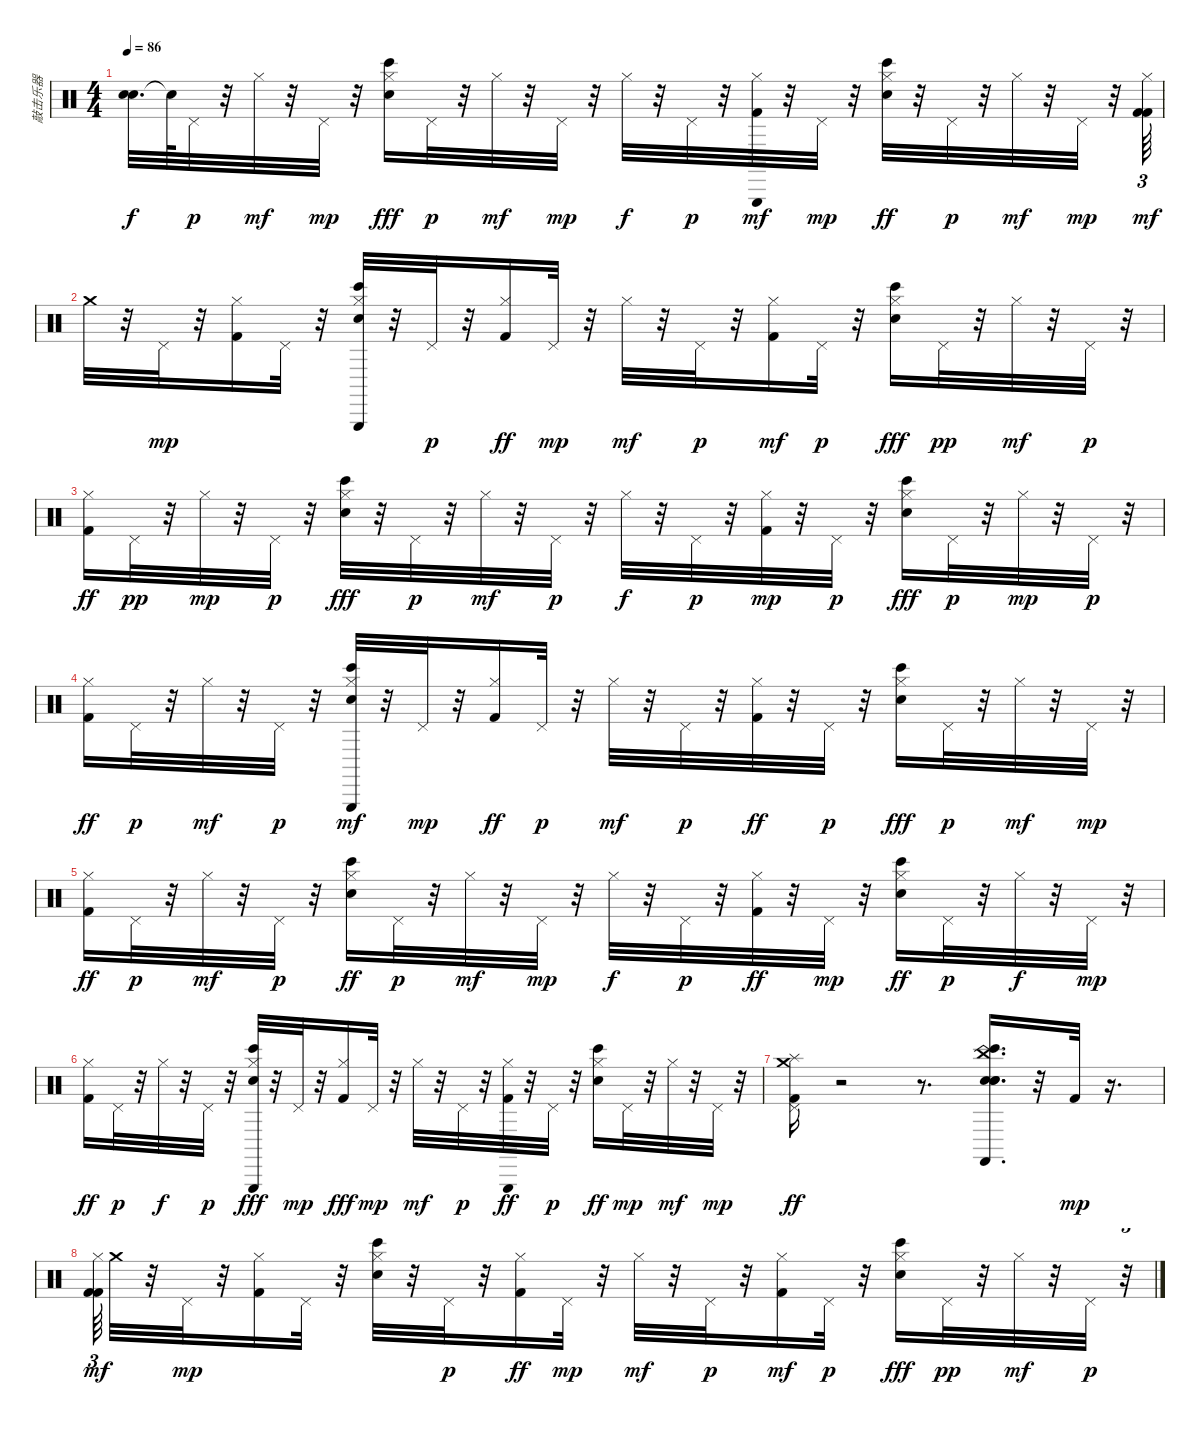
\track ("敲击乐器" "敲击乐器") {instrument percussion}
\staff {score}
\articulation defaults
\ts (4 4)
\tempo 86
\clef neutral
\ks c
("Snare (hit)"{t} "Snare (hit)"{t}).32{d dy f} "Snare (hit)"{t}.64 "Pedal Hi-Hat (hit)".32{dy p} r.32 "Hi-Hat (closed)".32{dy mf} r.32 "Pedal Hi-Hat (hit)".32{dy mp} r.32 ("Hi-Hat (closed)" "Bongo High (hit)" "Electric Snare (hit)").16{dy fff} "Pedal Hi-Hat (hit)".32{dy p} r.32 "Hi-Hat (closed)".32{dy mf} r.32 "Pedal Hi-Hat (hit)".32{dy mp} r.32 "Hi-Hat (closed)".32{dy f} r.32 "Pedal Hi-Hat (hit)".32{dy p} r.32 ("Triangle (hit)" "Hi-Hat (closed)" "Kick (hit) 2").32{dy mf} r.32 "Pedal Hi-Hat (hit)".32{dy mp} r.32 ("Hi-Hat (closed)" "Electric Snare (hit)" "Bongo High (hit)").32{dy ff} r.32 "Pedal Hi-Hat (hit)".32{dy p} r.32 "Hi-Hat (closed)".32{dy mf} r.32 "Pedal Hi-Hat (hit)".32{dy mp} r.32 ("Hi-Hat (closed)" "Kick (hit) 2" "Kick (hit) 2").64{tu (3 2) dy mf} |
"Crash medium (hit)".32 r.32 "Pedal Hi-Hat (hit)".32{dy mp} r.32 ("Hi-Hat (closed)" "Kick (hit) 2").16 "Pedal Hi-Hat (hit)".32 r.32 ("Hi-Hat (closed)" "Electric Snare (hit)" "Bongo High (hit)" "Triangle (hit)").32 r.32 "Pedal Hi-Hat (hit)".32{dy p} r.32 ("Hi-Hat (closed)" "Kick (hit) 2").16{dy ff} "Pedal Hi-Hat (hit)".32{dy mp} r.32 "Hi-Hat (closed)".32{dy mf} r.32 "Pedal Hi-Hat (hit)".32{dy p} r.32 ("Hi-Hat (closed)" "Kick (hit) 2").16{dy mf} "Pedal Hi-Hat (hit)".32{dy p} r.32 ("Hi-Hat (closed)" "Electric Snare (hit)" "Bongo High (hit)").16{dy fff} "Pedal Hi-Hat (hit)".32{dy pp} r.32 "Hi-Hat (closed)".32{dy mf} r.32 "Pedal Hi-Hat (hit)".32{dy p} r.32 |
("Hi-Hat (closed)" "Kick (hit) 2").16{dy ff} "Pedal Hi-Hat (hit)".32{dy pp} r.32 "Hi-Hat (closed)".32{dy mp} r.32 "Pedal Hi-Hat (hit)".32{dy p} r.32 ("Hi-Hat (closed)" "Electric Snare (hit)" "Bongo High (hit)").32{dy fff} r.32 "Pedal Hi-Hat (hit)".32{dy p} r.32 "Hi-Hat (closed)".32{dy mf} r.32 "Pedal Hi-Hat (hit)".32{dy p} r.32 "Hi-Hat (closed)".32{dy f} r.32 "Pedal Hi-Hat (hit)".32{dy p} r.32 ("Hi-Hat (closed)" "Kick (hit) 2").32{dy mp} r.32 "Pedal Hi-Hat (hit)".32{dy p} r.32 ("Hi-Hat (closed)" "Electric Snare (hit)" "Bongo High (hit)").16{dy fff} "Pedal Hi-Hat (hit)".32{dy p} r.32 "Hi-Hat (closed)".32{dy mp} r.32 "Pedal Hi-Hat (hit)".32{dy p} r.32 |
("Hi-Hat (closed)" "Kick (hit) 2").16{dy ff} "Pedal Hi-Hat (hit)".32{dy p} r.32 "Hi-Hat (closed)".32{dy mf} r.32 "Pedal Hi-Hat (hit)".32{dy p} r.32 ("Triangle (hit)" "Hi-Hat (closed)" "Electric Snare (hit)" "Bongo High (hit)").32{dy mf} r.32 "Pedal Hi-Hat (hit)".32{dy mp} r.32 ("Hi-Hat (closed)" "Kick (hit) 2").16{dy ff} "Pedal Hi-Hat (hit)".32{dy p} r.32 "Hi-Hat (closed)".32{dy mf} r.32 "Pedal Hi-Hat (hit)".32{dy p} r.32 ("Hi-Hat (closed)" "Kick (hit) 2").32{dy ff} r.32 "Pedal Hi-Hat (hit)".32{dy p} r.32 ("Hi-Hat (closed)" "Electric Snare (hit)" "Bongo High (hit)").16{dy fff} "Pedal Hi-Hat (hit)".32{dy p} r.32 "Hi-Hat (closed)".32{dy mf} r.32 "Pedal Hi-Hat (hit)".32{dy mp} r.32 |
("Hi-Hat (closed)" "Kick (hit) 2").16{dy ff} "Pedal Hi-Hat (hit)".32{dy p} r.32 "Hi-Hat (closed)".32{dy mf} r.32 "Pedal Hi-Hat (hit)".32{dy p} r.32 ("Hi-Hat (closed)" "Electric Snare (hit)" "Bongo High (hit)").16{dy ff} "Pedal Hi-Hat (hit)".32{dy p} r.32 "Hi-Hat (closed)".32{dy mf} r.32 "Pedal Hi-Hat (hit)".32{dy mp} r.32 "Hi-Hat (closed)".32{dy f} r.32 "Pedal Hi-Hat (hit)".32{dy p} r.32 ("Hi-Hat (closed)" "Kick (hit) 2").32{dy ff} r.32 "Pedal Hi-Hat (hit)".32{dy mp} r.32 ("Hi-Hat (closed)" "Electric Snare (hit)" "Bongo High (hit)").16{dy ff} "Pedal Hi-Hat (hit)".32{dy p} r.32 "Hi-Hat (closed)".32{dy f} r.32 "Pedal Hi-Hat (hit)".32{dy mp} r.32 |
("Hi-Hat (closed)" "Kick (hit) 2").16{dy ff} "Pedal Hi-Hat (hit)".32{dy p} r.32 "Hi-Hat (closed)".32{dy f} r.32 "Pedal Hi-Hat (hit)".32{dy p} r.32 ("Hi-Hat (closed)" "Triangle (hit)" "Bongo High (hit)" "Electric Snare (hit)").32{dy fff} r.32 "Pedal Hi-Hat (hit)".32{dy mp} r.32 ("Hi-Hat (closed)" "Kick (hit) 2").16{dy fff} "Pedal Hi-Hat (hit)".32{dy mp} r.32 "Hi-Hat (closed)".32{dy mf} r.32 "Pedal Hi-Hat (hit)".32{dy p} r.32 ("Hi-Hat (closed)" "Triangle (hit)" "Kick (hit) 2").32{dy ff} r.32 "Pedal Hi-Hat (hit)".32{dy p} r.32 ("Hi-Hat (closed)" "Bongo High (hit)" "Electric Snare (hit)").16{dy ff} "Pedal Hi-Hat (hit)".32{dy mp} r.32 "Hi-Hat (closed)".32{dy mf} r.32 "Pedal Hi-Hat (hit)".32{dy mp} r.32 |
("Pedal Hi-Hat (hit)" "Crash medium (hit)" "Splash (hit)" "Kick (hit) 2").16{dy ff} r.2 r.8{d} ("China (hit)" "Snare (hit)" "Hand Clap (hit)" "Snare (hit)" "Castanets (hit)" "Bongo High (hit)").16{d} r.32 "Kick (hit) 2".32{dy mp} r.16{d} |
("Hi-Hat (closed)" "Kick (hit) 2" "Kick (hit) 2").64{tu (3 2) dy mf} "Crash medium (hit)".32 r.32 "Pedal Hi-Hat (hit)".32{dy mp} r.32 ("Hi-Hat (closed)" "Kick (hit) 2").16 "Pedal Hi-Hat (hit)".32 r.32 ("Hi-Hat (closed)" "Electric Snare (hit)" "Bongo High (hit)").32 r.32 "Pedal Hi-Hat (hit)".32{dy p} r.32 ("Hi-Hat (closed)" "Kick (hit) 2").16{dy ff} "Pedal Hi-Hat (hit)".32{dy mp} r.32 "Hi-Hat (closed)".32{dy mf} r.32 "Pedal Hi-Hat (hit)".32{dy p} r.32 ("Hi-Hat (closed)" "Kick (hit) 2").16{dy mf} "Pedal Hi-Hat (hit)".32{dy p} r.32 ("Hi-Hat (closed)" "Electric Snare (hit)" "Bongo High (hit)").16{dy fff} "Pedal Hi-Hat (hit)".32{dy pp} r.32 "Hi-Hat (closed)".32{dy mf} r.32 "Pedal Hi-Hat (hit)".32{dy p} r.32{tu (3 2)}
